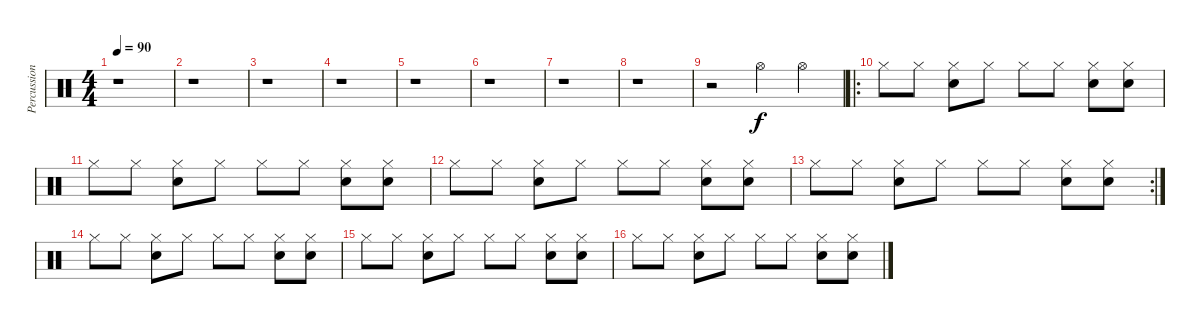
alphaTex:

\track ("Percussion" "Percussion") {instrument percussion}
\staff {score}
\articulation defaults
\ts (4 4)
\tempo 90
\clef neutral
\ks c
r.1{dy f} |
r.1 |
r.1 |
r.1 |
r.1 |
r.1 |
r.1 |
r.1 |
r.2 "Hi-Hat (open)".4 "Hi-Hat (open)".4 |
\ro "Hi-Hat (closed)".8 "Hi-Hat (closed)".8
("Snare (hit) 2" "Hi-Hat (closed)").8 "Hi-Hat (closed)".8 "Hi-Hat (closed)".8 "Hi-Hat (closed)".8 ("Snare (hit) 2" "Hi-Hat (closed)").8 ("Snare (hit) 2" "Hi-Hat (closed)").8 |
"Hi-Hat (closed)".8 "Hi-Hat (closed)".8 ("Snare (hit) 2" "Hi-Hat (closed)").8 "Hi-Hat (closed)".8 "Hi-Hat (closed)".8 "Hi-Hat (closed)".8 ("Snare (hit) 2" "Hi-Hat (closed)").8 ("Snare (hit) 2" "Hi-Hat (closed)").8 |
"Hi-Hat (closed)".8 "Hi-Hat (closed)".8 ("Snare (hit) 2" "Hi-Hat (closed)").8 "Hi-Hat (closed)".8 "Hi-Hat (closed)".8 "Hi-Hat (closed)".8 ("Snare (hit) 2" "Hi-Hat (closed)").8 ("Snare (hit) 2" "Hi-Hat (closed)").8 |
\rc 2 "Hi-Hat (closed)".8 "Hi-Hat (closed)".8
("Snare (hit) 2" "Hi-Hat (closed)").8 "Hi-Hat (closed)".8 "Hi-Hat (closed)".8 "Hi-Hat (closed)".8 ("Snare (hit) 2" "Hi-Hat (closed)").8 ("Snare (hit) 2" "Hi-Hat (closed)").8 |
"Hi-Hat (closed)".8 "Hi-Hat (closed)".8 ("Snare (hit) 2" "Hi-Hat (closed)").8 "Hi-Hat (closed)".8 "Hi-Hat (closed)".8 "Hi-Hat (closed)".8 ("Snare (hit) 2" "Hi-Hat (closed)").8 ("Snare (hit) 2" "Hi-Hat (closed)").8 |
"Hi-Hat (closed)".8 "Hi-Hat (closed)".8 ("Snare (hit) 2" "Hi-Hat (closed)").8 "Hi-Hat (closed)".8 "Hi-Hat (closed)".8 "Hi-Hat (closed)".8 ("Snare (hit) 2" "Hi-Hat (closed)").8 ("Snare (hit) 2" "Hi-Hat (closed)").8 |
"Hi-Hat (closed)".8 "Hi-Hat (closed)".8 ("Snare (hit) 2" "Hi-Hat (closed)").8 "Hi-Hat (closed)".8 "Hi-Hat (closed)".8 "Hi-Hat (closed)".8 ("Snare (hit) 2" "Hi-Hat (closed)").8 ("Snare (hit) 2" "Hi-Hat (closed)").8
